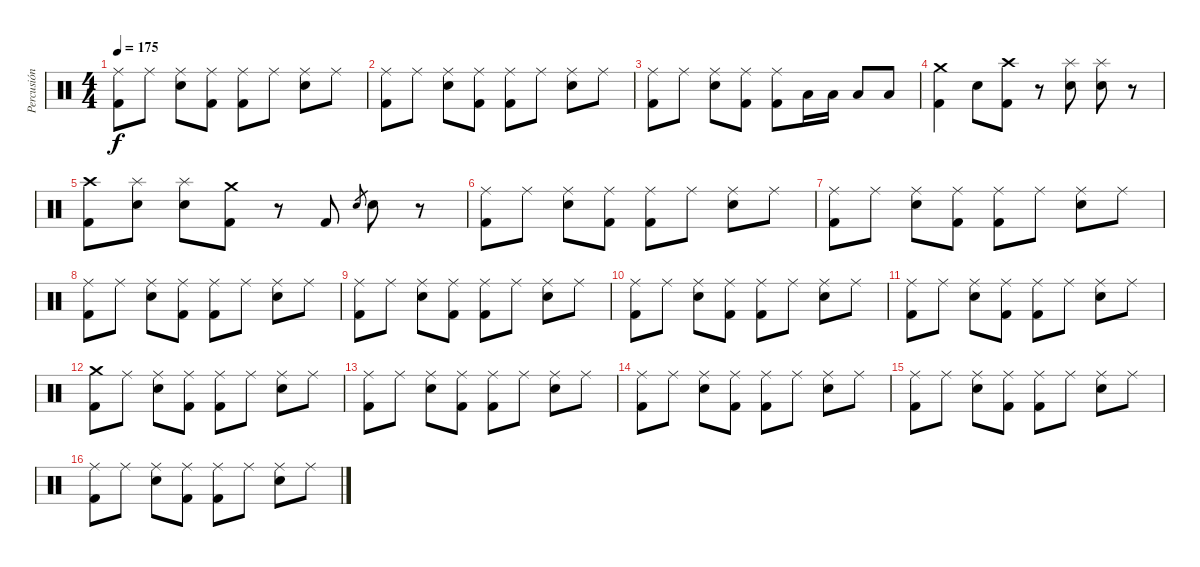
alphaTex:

\track ("Percusión" "Percusión") {instrument percussion}
\staff {score}
\articulation defaults
\ts (4 4)
\tempo 175
\clef neutral
\ks c
("Ride (middle)" "Kick (hit) 2").8{dy f} "Ride (middle)".8 ("Ride (middle)" "Electric Snare (hit)").8 ("Ride (middle)" "Kick (hit) 2").8 ("Kick (hit) 2" "Ride (middle)").8 "Ride (middle)".8 ("Electric Snare (hit)" "Ride (middle)").8 "Ride (middle)".8 |
("Ride (middle)" "Kick (hit) 2").8 "Ride (middle)".8 ("Ride (middle)" "Electric Snare (hit)").8 ("Ride (middle)" "Kick (hit) 2").8 ("Kick (hit) 2" "Ride (middle)").8 "Ride (middle)".8 ("Electric Snare (hit)" "Ride (middle)").8 "Ride (middle)".8 |
("Ride (middle)" "Kick (hit) 2").8 "Ride (middle)".8 ("Ride (middle)" "Electric Snare (hit)").8 ("Ride (middle)" "Kick (hit) 2").8 ("Kick (hit) 2" "Ride (middle)").8 "Low Tom (hit)".16 "Low Floor Tom (hit)".16 "Low Floor Tom (hit)".8 "Low Floor Tom (hit)".8 |
("Crash medium (hit)" "Kick (hit) 2").4 "Electric Snare (hit)".8 ("Crash high (hit)" "Kick (hit) 2").8 r.8 ("Splash (hit)" "Electric Snare (hit)").8 ("Splash (hit)" "Electric Snare (hit)").8 r.8 |
("Crash high (hit)" "Kick (hit) 2").8 ("Splash (hit)" "Electric Snare (hit)").8 ("Splash (hit)" "Electric Snare (hit)").8 ("Crash medium (hit)" "Kick (hit) 2").8 r.8 "Kick (hit) 2".8 "Electric Snare (hit)".8{gr} "Electric Snare (hit)".8 r.8 |
("Ride (middle)" "Kick (hit) 2").8 "Ride (middle)".8 ("Ride (middle)" "Electric Snare (hit)").8 ("Ride (middle)" "Kick (hit) 2").8 ("Kick (hit) 2" "Ride (middle)").8 "Ride (middle)".8 ("Electric Snare (hit)" "Ride (middle)").8 "Ride (middle)".8 |
("Ride (middle)" "Kick (hit) 2").8 "Ride (middle)".8 ("Ride (middle)" "Electric Snare (hit)").8 ("Ride (middle)" "Kick (hit) 2").8 ("Kick (hit) 2" "Ride (middle)").8 "Ride (middle)".8 ("Electric Snare (hit)" "Ride (middle)").8 "Ride (middle)".8 |
("Ride (middle)" "Kick (hit) 2").8 "Ride (middle)".8 ("Ride (middle)" "Electric Snare (hit)").8 ("Ride (middle)" "Kick (hit) 2").8 ("Kick (hit) 2" "Ride (middle)").8 "Ride (middle)".8 ("Electric Snare (hit)" "Ride (middle)").8 "Ride (middle)".8 |
("Ride (middle)" "Kick (hit) 2").8 "Ride (middle)".8 ("Ride (middle)" "Electric Snare (hit)").8 ("Ride (middle)" "Kick (hit) 2").8 ("Kick (hit) 2" "Ride (middle)").8 "Ride (middle)".8 ("Electric Snare (hit)" "Ride (middle)").8 "Ride (middle)".8 |
("Ride (middle)" "Kick (hit) 2").8 "Ride (middle)".8 ("Ride (middle)" "Electric Snare (hit)").8 ("Ride (middle)" "Kick (hit) 2").8 ("Kick (hit) 2" "Ride (middle)").8 "Ride (middle)".8 ("Electric Snare (hit)" "Ride (middle)").8 "Ride (middle)".8 |
("Ride (middle)" "Kick (hit) 2").8 "Ride (middle)".8 ("Ride (middle)" "Electric Snare (hit)").8 ("Ride (middle)" "Kick (hit) 2").8 ("Kick (hit) 2" "Ride (middle)").8 "Ride (middle)".8 ("Electric Snare (hit)" "Ride (middle)").8 "Ride (middle)".8 |
("Crash medium (hit)" "Kick (hit) 2").8 "Ride (middle)".8 ("Ride (middle)" "Electric Snare (hit)").8 ("Ride (middle)" "Kick (hit) 2").8 ("Kick (hit) 2" "Ride (middle)").8 "Ride (middle)".8 ("Electric Snare (hit)" "Ride (middle)").8 "Ride (middle)".8 |
("Ride (middle)" "Kick (hit) 2").8 "Ride (middle)".8 ("Ride (middle)" "Electric Snare (hit)").8 ("Ride (middle)" "Kick (hit) 2").8 ("Kick (hit) 2" "Ride (middle)").8 "Ride (middle)".8 ("Electric Snare (hit)" "Ride (middle)").8 "Ride (middle)".8 |
("Ride (middle)" "Kick (hit) 2").8 "Ride (middle)".8 ("Ride (middle)" "Electric Snare (hit)").8 ("Ride (middle)" "Kick (hit) 2").8 ("Kick (hit) 2" "Ride (middle)").8 "Ride (middle)".8 ("Electric Snare (hit)" "Ride (middle)").8 "Ride (middle)".8 |
("Ride (middle)" "Kick (hit) 2").8 "Ride (middle)".8 ("Ride (middle)" "Electric Snare (hit)").8 ("Ride (middle)" "Kick (hit) 2").8 ("Kick (hit) 2" "Ride (middle)").8 "Ride (middle)".8 ("Electric Snare (hit)" "Ride (middle)").8 "Ride (middle)".8 |
("Ride (middle)" "Kick (hit) 2").8 "Ride (middle)".8 ("Ride (middle)" "Electric Snare (hit)").8 ("Ride (middle)" "Kick (hit) 2").8 ("Kick (hit) 2" "Ride (middle)").8 "Ride (middle)".8 ("Electric Snare (hit)" "Ride (middle)").8 "Ride (middle)".8
